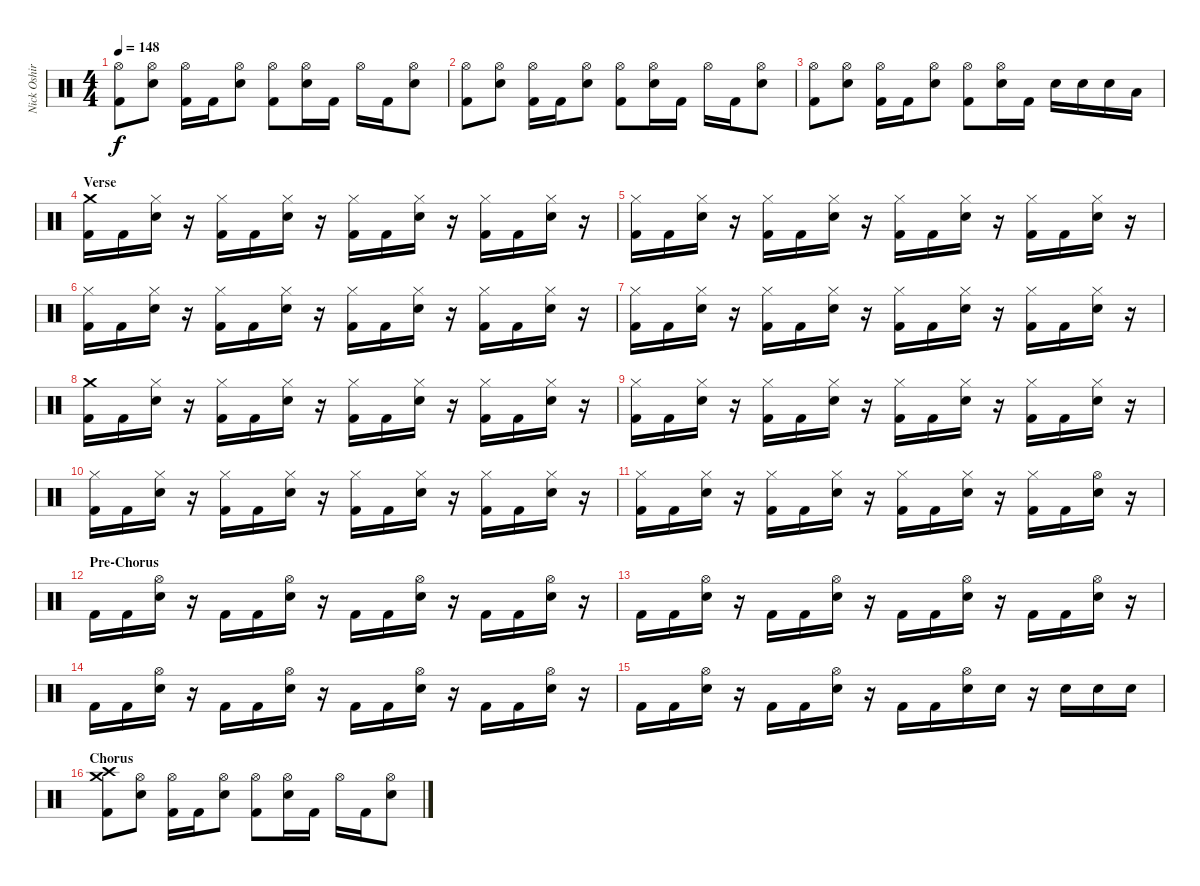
\track ("Nick Oshiro - Drums" "Nick Oshir") {instrument percussion}
\staff {score}
\articulation defaults
\ts (4 4)
\tempo 148
\clef neutral
\ks c
("Hi-Hat (open)" "Kick (hit) 2").8{dy f} ("Hi-Hat (open)" "Electric Snare (hit)").8 ("Hi-Hat (open)" "Kick (hit) 2").16 "Kick (hit) 2".16 ("Hi-Hat (open)" "Electric Snare (hit)").8 ("Hi-Hat (open)" "Kick (hit) 2").8 ("Hi-Hat (open)" "Electric Snare (hit)").16 "Kick (hit) 2".16 "Hi-Hat (open)".16 "Kick (hit) 2".16 ("Hi-Hat (open)" "Electric Snare (hit)").8 |
("Hi-Hat (open)" "Kick (hit) 2").8 ("Hi-Hat (open)" "Electric Snare (hit)").8 ("Hi-Hat (open)" "Kick (hit) 2").16 "Kick (hit) 2".16 ("Hi-Hat (open)" "Electric Snare (hit)").8 ("Hi-Hat (open)" "Kick (hit) 2").8 ("Hi-Hat (open)" "Electric Snare (hit)").16 "Kick (hit) 2".16 "Hi-Hat (open)".16 "Kick (hit) 2".16 ("Hi-Hat (open)" "Electric Snare (hit)").8 |
("Hi-Hat (open)" "Kick (hit) 2").8 ("Hi-Hat (open)" "Electric Snare (hit)").8 ("Hi-Hat (open)" "Kick (hit) 2").16 "Kick (hit) 2".16 ("Hi-Hat (open)" "Electric Snare (hit)").8 ("Hi-Hat (open)" "Kick (hit) 2").8 ("Hi-Hat (open)" "Electric Snare (hit)").16 "Kick (hit) 2".16 "Electric Snare (hit)".16 "Electric Snare (hit)".16 "Electric Snare (hit)".16 "Low Tom (hit)".16 |
\section ("" "Verse")
("Crash medium (hit)" "Kick (hit) 2").16 "Kick (hit) 2".16 ("Hi-Hat (closed)" "Electric Snare (hit)").16 r.16 ("Hi-Hat (closed)" "Kick (hit) 2").16 "Kick (hit) 2".16 ("Hi-Hat (closed)" "Electric Snare (hit)").16 r.16 ("Hi-Hat (closed)" "Kick (hit) 2").16 "Kick (hit) 2".16 ("Hi-Hat (closed)" "Electric Snare (hit)").16 r.16 ("Hi-Hat (closed)" "Kick (hit) 2").16 "Kick (hit) 2".16 ("Hi-Hat (closed)" "Electric Snare (hit)").16 r.16 |
("Hi-Hat (closed)" "Kick (hit) 2").16 "Kick (hit) 2".16 ("Hi-Hat (closed)" "Electric Snare (hit)").16 r.16 ("Hi-Hat (closed)" "Kick (hit) 2").16 "Kick (hit) 2".16 ("Hi-Hat (closed)" "Electric Snare (hit)").16 r.16 ("Hi-Hat (closed)" "Kick (hit) 2").16 "Kick (hit) 2".16 ("Hi-Hat (closed)" "Electric Snare (hit)").16 r.16 ("Hi-Hat (closed)" "Kick (hit) 2").16 "Kick (hit) 2".16 ("Hi-Hat (closed)" "Electric Snare (hit)").16 r.16 |
("Hi-Hat (closed)" "Kick (hit) 2").16 "Kick (hit) 2".16 ("Hi-Hat (closed)" "Electric Snare (hit)").16 r.16 ("Hi-Hat (closed)" "Kick (hit) 2").16 "Kick (hit) 2".16 ("Hi-Hat (closed)" "Electric Snare (hit)").16 r.16 ("Hi-Hat (closed)" "Kick (hit) 2").16 "Kick (hit) 2".16 ("Hi-Hat (closed)" "Electric Snare (hit)").16 r.16 ("Hi-Hat (closed)" "Kick (hit) 2").16 "Kick (hit) 2".16 ("Hi-Hat (closed)" "Electric Snare (hit)").16 r.16 |
("Hi-Hat (closed)" "Kick (hit) 2").16 "Kick (hit) 2".16 ("Hi-Hat (closed)" "Electric Snare (hit)").16 r.16 ("Hi-Hat (closed)" "Kick (hit) 2").16 "Kick (hit) 2".16 ("Hi-Hat (closed)" "Electric Snare (hit)").16 r.16 ("Hi-Hat (closed)" "Kick (hit) 2").16 "Kick (hit) 2".16 ("Hi-Hat (closed)" "Electric Snare (hit)").16 r.16 ("Hi-Hat (closed)" "Kick (hit) 2").16 "Kick (hit) 2".16 ("Hi-Hat (closed)" "Electric Snare (hit)").16 r.16 |
("Crash medium (hit)" "Kick (hit) 2").16 "Kick (hit) 2".16 ("Hi-Hat (closed)" "Electric Snare (hit)").16 r.16 ("Hi-Hat (closed)" "Kick (hit) 2").16 "Kick (hit) 2".16 ("Hi-Hat (closed)" "Electric Snare (hit)").16 r.16 ("Hi-Hat (closed)" "Kick (hit) 2").16 "Kick (hit) 2".16 ("Hi-Hat (closed)" "Electric Snare (hit)").16 r.16 ("Hi-Hat (closed)" "Kick (hit) 2").16 "Kick (hit) 2".16 ("Hi-Hat (closed)" "Electric Snare (hit)").16 r.16 |
("Hi-Hat (closed)" "Kick (hit) 2").16 "Kick (hit) 2".16 ("Hi-Hat (closed)" "Electric Snare (hit)").16 r.16 ("Hi-Hat (closed)" "Kick (hit) 2").16 "Kick (hit) 2".16 ("Hi-Hat (closed)" "Electric Snare (hit)").16 r.16 ("Hi-Hat (closed)" "Kick (hit) 2").16 "Kick (hit) 2".16 ("Hi-Hat (closed)" "Electric Snare (hit)").16 r.16 ("Hi-Hat (closed)" "Kick (hit) 2").16 "Kick (hit) 2".16 ("Hi-Hat (closed)" "Electric Snare (hit)").16 r.16 |
("Hi-Hat (closed)" "Kick (hit) 2").16 "Kick (hit) 2".16 ("Hi-Hat (closed)" "Electric Snare (hit)").16 r.16 ("Hi-Hat (closed)" "Kick (hit) 2").16 "Kick (hit) 2".16 ("Hi-Hat (closed)" "Electric Snare (hit)").16 r.16 ("Hi-Hat (closed)" "Kick (hit) 2").16 "Kick (hit) 2".16 ("Hi-Hat (closed)" "Electric Snare (hit)").16 r.16 ("Hi-Hat (closed)" "Kick (hit) 2").16 "Kick (hit) 2".16 ("Hi-Hat (closed)" "Electric Snare (hit)").16 r.16 |
("Hi-Hat (closed)" "Kick (hit) 2").16 "Kick (hit) 2".16 ("Hi-Hat (closed)" "Electric Snare (hit)").16 r.16 ("Hi-Hat (closed)" "Kick (hit) 2").16 "Kick (hit) 2".16 ("Hi-Hat (closed)" "Electric Snare (hit)").16 r.16 ("Hi-Hat (closed)" "Kick (hit) 2").16 "Kick (hit) 2".16 ("Hi-Hat (closed)" "Electric Snare (hit)").16 r.16 ("Hi-Hat (closed)" "Kick (hit) 2").16 "Kick (hit) 2".16 ("Hi-Hat (open)" "Electric Snare (hit)").16 r.16 |
\section ("" "Pre-Chorus")
"Kick (hit) 2".16 "Kick (hit) 2".16 ("Hi-Hat (open)" "Electric Snare (hit)").16 r.16 "Kick (hit) 2".16 "Kick (hit) 2".16 ("Hi-Hat (open)" "Electric Snare (hit)").16 r.16 "Kick (hit) 2".16 "Kick (hit) 2".16 ("Hi-Hat (open)" "Electric Snare (hit)").16 r.16 "Kick (hit) 2".16 "Kick (hit) 2".16 ("Hi-Hat (open)" "Electric Snare (hit)").16 r.16 |
"Kick (hit) 2".16 "Kick (hit) 2".16 ("Hi-Hat (open)" "Electric Snare (hit)").16 r.16 "Kick (hit) 2".16 "Kick (hit) 2".16 ("Hi-Hat (open)" "Electric Snare (hit)").16 r.16 "Kick (hit) 2".16 "Kick (hit) 2".16 ("Hi-Hat (open)" "Electric Snare (hit)").16 r.16 "Kick (hit) 2".16 "Kick (hit) 2".16 ("Hi-Hat (open)" "Electric Snare (hit)").16 r.16 |
"Kick (hit) 2".16 "Kick (hit) 2".16 ("Hi-Hat (open)" "Electric Snare (hit)").16 r.16 "Kick (hit) 2".16 "Kick (hit) 2".16 ("Hi-Hat (open)" "Electric Snare (hit)").16 r.16 "Kick (hit) 2".16 "Kick (hit) 2".16 ("Hi-Hat (open)" "Electric Snare (hit)").16 r.16 "Kick (hit) 2".16 "Kick (hit) 2".16 ("Hi-Hat (open)" "Electric Snare (hit)").16 r.16 |
"Kick (hit) 2".16 "Kick (hit) 2".16 ("Hi-Hat (open)" "Electric Snare (hit)").16 r.16 "Kick (hit) 2".16 "Kick (hit) 2".16 ("Hi-Hat (open)" "Electric Snare (hit)").16 r.16 "Kick (hit) 2".16 "Kick (hit) 2".16 ("Hi-Hat (open)" "Electric Snare (hit)").16 "Electric Snare (hit)".16 r.16 "Electric Snare (hit)".16 "Electric Snare (hit)".16 "Electric Snare (hit)".16 |
\section ("" "Chorus")
("Crash high (hit)" "Crash medium (hit)" "Kick (hit) 2").8 ("Hi-Hat (open)" "Electric Snare (hit)").8 ("Hi-Hat (open)" "Kick (hit) 2").16 "Kick (hit) 2".16 ("Hi-Hat (open)" "Electric Snare (hit)").8 ("Hi-Hat (open)" "Kick (hit) 2").8 ("Hi-Hat (open)" "Electric Snare (hit)").16 "Kick (hit) 2".16 "Hi-Hat (open)".16 "Kick (hit) 2".16 ("Hi-Hat (open)" "Electric Snare (hit)").8
